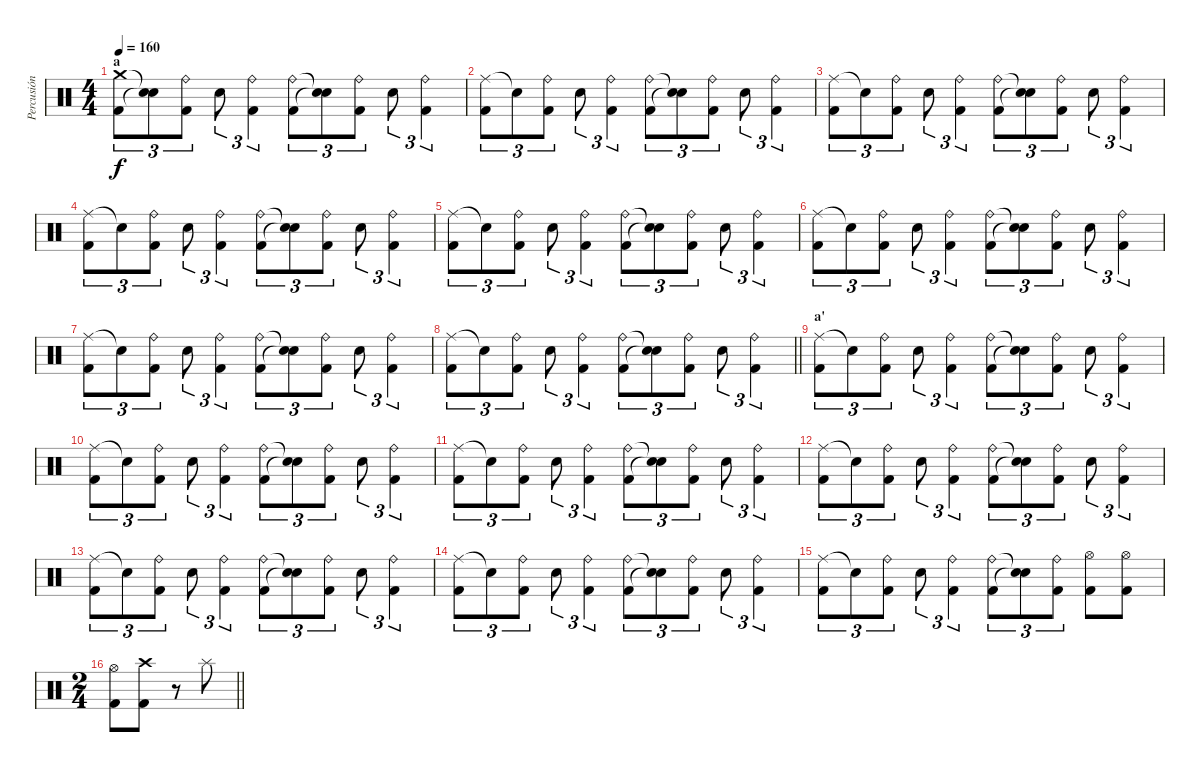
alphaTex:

\track ("Percusión" "Percusión") {instrument percussion}
\staff {score}
\articulation defaults
\ts (4 4)
\section ("" "a")
\tempo 160
\clef neutral
\ks c
("Crash medium (hit)" "Kick (hit) 2").8{tu (3 2) dy f} ("Snare (hit)"{t} "Snare (hit)"{t}).8{tu (3 2)} ("Ride (bell)" "Kick (hit) 2").8{tu (3 2)} "Snare (hit) 2".8{tu (3 2)} ("Ride (bell)" "Kick (hit) 2").4{tu (3 2)} ("Ride (bell)" "Kick (hit) 2").8{tu (3 2)} ("Snare (hit)"{t} "Snare (hit)"{t}).8{tu (3 2)} ("Ride (bell)" "Kick (hit) 2").8{tu (3 2)} "Snare (hit) 2".8{tu (3 2)} ("Ride (bell)" "Kick (hit) 2").4{tu (3 2)} |
("Ride (middle)" "Kick (hit) 2").8{tu (3 2)} "Snare (hit)"{t}.8{tu (3 2)} ("Ride (bell)" "Kick (hit) 2").8{tu (3 2)} "Snare (hit) 2".8{tu (3 2)} ("Ride (bell)" "Kick (hit) 2").4{tu (3 2)} ("Ride (bell)" "Kick (hit) 2").8{tu (3 2)} ("Snare (hit)"{t} "Snare (hit)"{t}).8{tu (3 2)} ("Ride (bell)" "Kick (hit) 2").8{tu (3 2)} "Snare (hit) 2".8{tu (3 2)} ("Ride (bell)" "Kick (hit) 2").4{tu (3 2)} |
("Ride (middle)" "Kick (hit) 2").8{tu (3 2)} "Snare (hit)"{t}.8{tu (3 2)} ("Ride (bell)" "Kick (hit) 2").8{tu (3 2)} "Snare (hit) 2".8{tu (3 2)} ("Ride (bell)" "Kick (hit) 2").4{tu (3 2)} ("Ride (bell)" "Kick (hit) 2").8{tu (3 2)} ("Snare (hit)"{t} "Snare (hit)"{t}).8{tu (3 2)} ("Ride (bell)" "Kick (hit) 2").8{tu (3 2)} "Snare (hit) 2".8{tu (3 2)} ("Ride (bell)" "Kick (hit) 2").4{tu (3 2)} |
("Ride (middle)" "Kick (hit) 2").8{tu (3 2)} "Snare (hit)"{t}.8{tu (3 2)} ("Ride (bell)" "Kick (hit) 2").8{tu (3 2)} "Snare (hit) 2".8{tu (3 2)} ("Ride (bell)" "Kick (hit) 2").4{tu (3 2)} ("Ride (bell)" "Kick (hit) 2").8{tu (3 2)} ("Snare (hit)"{t} "Snare (hit)"{t}).8{tu (3 2)} ("Ride (bell)" "Kick (hit) 2").8{tu (3 2)} "Snare (hit) 2".8{tu (3 2)} ("Ride (bell)" "Kick (hit) 2").4{tu (3 2)} |
("Ride (middle)" "Kick (hit) 2").8{tu (3 2)} "Snare (hit)"{t}.8{tu (3 2)} ("Ride (bell)" "Kick (hit) 2").8{tu (3 2)} "Snare (hit) 2".8{tu (3 2)} ("Ride (bell)" "Kick (hit) 2").4{tu (3 2)} ("Ride (bell)" "Kick (hit) 2").8{tu (3 2)} ("Snare (hit)"{t} "Snare (hit)"{t}).8{tu (3 2)} ("Ride (bell)" "Kick (hit) 2").8{tu (3 2)} "Snare (hit) 2".8{tu (3 2)} ("Ride (bell)" "Kick (hit) 2").4{tu (3 2)} |
("Ride (middle)" "Kick (hit) 2").8{tu (3 2)} "Snare (hit)"{t}.8{tu (3 2)} ("Ride (bell)" "Kick (hit) 2").8{tu (3 2)} "Snare (hit) 2".8{tu (3 2)} ("Ride (bell)" "Kick (hit) 2").4{tu (3 2)} ("Ride (bell)" "Kick (hit) 2").8{tu (3 2)} ("Snare (hit)"{t} "Snare (hit)"{t}).8{tu (3 2)} ("Ride (bell)" "Kick (hit) 2").8{tu (3 2)} "Snare (hit) 2".8{tu (3 2)} ("Ride (bell)" "Kick (hit) 2").4{tu (3 2)} |
("Ride (middle)" "Kick (hit) 2").8{tu (3 2)} "Snare (hit)"{t}.8{tu (3 2)} ("Ride (bell)" "Kick (hit) 2").8{tu (3 2)} "Snare (hit) 2".8{tu (3 2)} ("Ride (bell)" "Kick (hit) 2").4{tu (3 2)} ("Ride (bell)" "Kick (hit) 2").8{tu (3 2)} ("Snare (hit)"{t} "Snare (hit)"{t}).8{tu (3 2)} ("Ride (bell)" "Kick (hit) 2").8{tu (3 2)} "Snare (hit) 2".8{tu (3 2)} ("Ride (bell)" "Kick (hit) 2").4{tu (3 2)} |
\barLineRight lightlight
("Ride (middle)" "Kick (hit) 2").8{tu (3 2)} "Snare (hit)"{t}.8{tu (3 2)} ("Ride (bell)" "Kick (hit) 2").8{tu (3 2)} "Snare (hit) 2".8{tu (3 2)} ("Ride (bell)" "Kick (hit) 2").4{tu (3 2)} ("Ride (bell)" "Kick (hit) 2").8{tu (3 2)} ("Snare (hit)"{t} "Snare (hit)"{t}).8{tu (3 2)} ("Ride (bell)" "Kick (hit) 2").8{tu (3 2)} "Snare (hit) 2".8{tu (3 2)} ("Ride (bell)" "Kick (hit) 2").4{tu (3 2)} |
\section ("" "a'")
("Ride (middle)" "Kick (hit) 2").8{tu (3 2)} "Snare (hit)"{t}.8{tu (3 2)} ("Ride (bell)" "Kick (hit) 2").8{tu (3 2)} "Snare (hit) 2".8{tu (3 2)} ("Ride (bell)" "Kick (hit) 2").4{tu (3 2)} ("Ride (bell)" "Kick (hit) 2").8{tu (3 2)} ("Snare (hit)"{t} "Snare (hit)"{t}).8{tu (3 2)} ("Ride (bell)" "Kick (hit) 2").8{tu (3 2)} "Snare (hit) 2".8{tu (3 2)} ("Ride (bell)" "Kick (hit) 2").4{tu (3 2)} |
("Ride (middle)" "Kick (hit) 2").8{tu (3 2)} "Snare (hit)"{t}.8{tu (3 2)} ("Ride (bell)" "Kick (hit) 2").8{tu (3 2)} "Snare (hit) 2".8{tu (3 2)} ("Ride (bell)" "Kick (hit) 2").4{tu (3 2)} ("Ride (bell)" "Kick (hit) 2").8{tu (3 2)} ("Snare (hit)"{t} "Snare (hit)"{t}).8{tu (3 2)} ("Ride (bell)" "Kick (hit) 2").8{tu (3 2)} "Snare (hit) 2".8{tu (3 2)} ("Ride (bell)" "Kick (hit) 2").4{tu (3 2)} |
("Ride (middle)" "Kick (hit) 2").8{tu (3 2)} "Snare (hit)"{t}.8{tu (3 2)} ("Ride (bell)" "Kick (hit) 2").8{tu (3 2)} "Snare (hit) 2".8{tu (3 2)} ("Ride (bell)" "Kick (hit) 2").4{tu (3 2)} ("Ride (bell)" "Kick (hit) 2").8{tu (3 2)} ("Snare (hit)"{t} "Snare (hit)"{t}).8{tu (3 2)} ("Ride (bell)" "Kick (hit) 2").8{tu (3 2)} "Snare (hit) 2".8{tu (3 2)} ("Ride (bell)" "Kick (hit) 2").4{tu (3 2)} |
("Ride (middle)" "Kick (hit) 2").8{tu (3 2)} "Snare (hit)"{t}.8{tu (3 2)} ("Ride (bell)" "Kick (hit) 2").8{tu (3 2)} "Snare (hit) 2".8{tu (3 2)} ("Ride (bell)" "Kick (hit) 2").4{tu (3 2)} ("Ride (bell)" "Kick (hit) 2").8{tu (3 2)} ("Snare (hit)"{t} "Snare (hit)"{t}).8{tu (3 2)} ("Ride (bell)" "Kick (hit) 2").8{tu (3 2)} "Snare (hit) 2".8{tu (3 2)} ("Ride (bell)" "Kick (hit) 2").4{tu (3 2)} |
("Ride (middle)" "Kick (hit) 2").8{tu (3 2)} "Snare (hit)"{t}.8{tu (3 2)} ("Ride (bell)" "Kick (hit) 2").8{tu (3 2)} "Snare (hit) 2".8{tu (3 2)} ("Ride (bell)" "Kick (hit) 2").4{tu (3 2)} ("Ride (bell)" "Kick (hit) 2").8{tu (3 2)} ("Snare (hit)"{t} "Snare (hit)"{t}).8{tu (3 2)} ("Ride (bell)" "Kick (hit) 2").8{tu (3 2)} "Snare (hit) 2".8{tu (3 2)} ("Ride (bell)" "Kick (hit) 2").4{tu (3 2)} |
("Ride (middle)" "Kick (hit) 2").8{tu (3 2)} "Snare (hit)"{t}.8{tu (3 2)} ("Ride (bell)" "Kick (hit) 2").8{tu (3 2)} "Snare (hit) 2".8{tu (3 2)} ("Ride (bell)" "Kick (hit) 2").4{tu (3 2)} ("Ride (bell)" "Kick (hit) 2").8{tu (3 2)} ("Snare (hit)"{t} "Snare (hit)"{t}).8{tu (3 2)} ("Ride (bell)" "Kick (hit) 2").8{tu (3 2)} "Snare (hit) 2".8{tu (3 2)} ("Ride (bell)" "Kick (hit) 2").4{tu (3 2)} |
("Ride (middle)" "Kick (hit) 2").8{tu (3 2)} "Snare (hit)"{t}.8{tu (3 2)} ("Ride (bell)" "Kick (hit) 2").8{tu (3 2)} "Snare (hit) 2".8{tu (3 2)} ("Ride (bell)" "Kick (hit) 2").4{tu (3 2)} ("Ride (bell)" "Kick (hit) 2").8{tu (3 2)} ("Snare (hit)"{t} "Snare (hit)"{t}).8{tu (3 2)} ("Ride (bell)" "Kick (hit) 2").8{tu (3 2)} ("Kick (hit) 2" "Hi-Hat (open)").8 ("Kick (hit) 2" "Hi-Hat (open)").8 |
\ts (2 4)
\barLineRight lightlight
("Kick (hit) 2" "Hi-Hat (open)").8 ("Kick (hit) 2" "Crash high (hit)").8 r.8 "Splash (hit)".8
